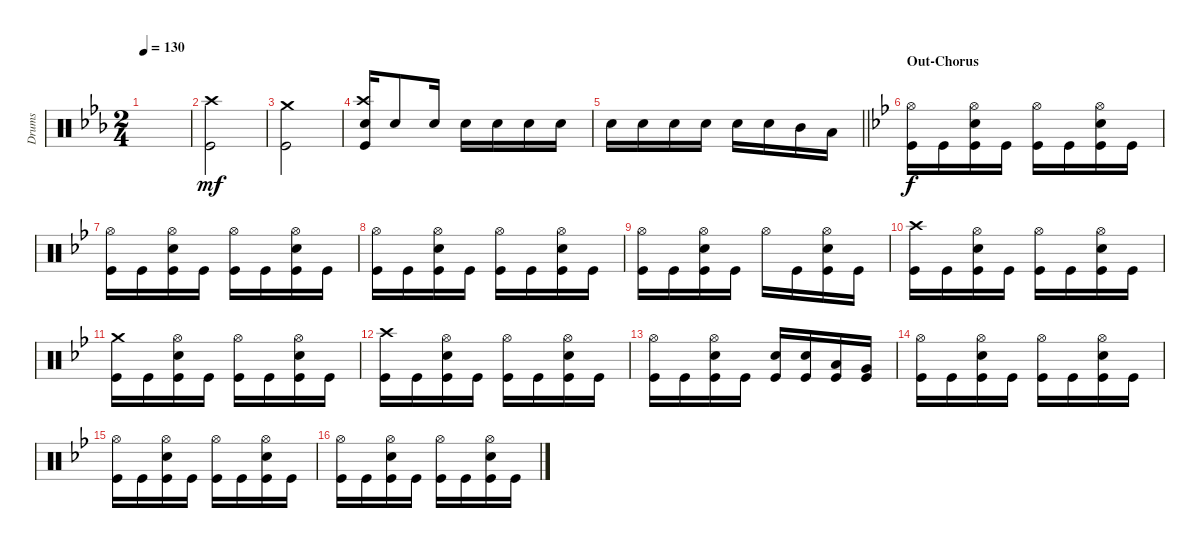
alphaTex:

\track ("Drums" "Drums") {instrument percussion}
\staff {score}
\articulation defaults
\ts (2 4)
\tempo 130
\clef neutral
\ks cminor
|
("Kick (hit)" "Crash high (hit)").2{dy mf} |
("Kick (hit)" "Crash medium (hit)").2 |
("Kick (hit)" "Crash high (hit)" "Snare (hit) 2").16 "Snare (hit) 2".8 "Snare (hit) 2".16 "Snare (hit) 2".16 "Snare (hit) 2".16 "Snare (hit) 2".16 "Snare (hit) 2".16 |
\barLineRight lightlight "Snare (hit) 2".16 "Snare (hit) 2".16 "Snare (hit) 2".16 "Snare (hit) 2".16 "Snare (hit) 2".16 "Snare (hit) 2".16 "Mid Tom (hit)".16 "Low Tom (hit)".16
|
\section ("" "Out-Chorus")
\ks gminor
("Kick (hit)" "Hi-Hat (open)").16{dy f} "Kick (hit)".16 ("Kick (hit)" "Snare (hit) 2" "Hi-Hat (open)").16 "Kick (hit)".16 ("Kick (hit)" "Hi-Hat (open)").16 "Kick (hit)".16 ("Kick (hit)" "Snare (hit) 2" "Hi-Hat (open)").16 "Kick (hit)".16 |
("Kick (hit)" "Hi-Hat (open)").16 "Kick (hit)".16 ("Kick (hit)" "Snare (hit) 2" "Hi-Hat (open)").16 "Kick (hit)".16 ("Kick (hit)" "Hi-Hat (open)").16 "Kick (hit)".16 ("Kick (hit)" "Snare (hit) 2" "Hi-Hat (open)").16 "Kick (hit)".16 |
("Kick (hit)" "Hi-Hat (open)").16 "Kick (hit)".16 ("Kick (hit)" "Snare (hit) 2" "Hi-Hat (open)").16 "Kick (hit)".16 ("Kick (hit)" "Hi-Hat (open)").16 "Kick (hit)".16 ("Kick (hit)" "Snare (hit) 2" "Hi-Hat (open)").16 "Kick (hit)".16 |
("Kick (hit)" "Hi-Hat (open)").16 "Kick (hit)".16 ("Kick (hit)" "Snare (hit) 2" "Hi-Hat (open)").16 "Kick (hit)".16 "Hi-Hat (open)".16 "Kick (hit)".16 ("Kick (hit)" "Snare (hit) 2" "Hi-Hat (open)").16 "Kick (hit)".16 |
("Kick (hit)" "Crash high (hit)").16 "Kick (hit)".16 ("Kick (hit)" "Hi-Hat (open)" "Snare (hit) 2").16 "Kick (hit)".16 ("Kick (hit)" "Hi-Hat (open)").16 "Kick (hit)".16 ("Kick (hit)" "Hi-Hat (open)" "Snare (hit) 2").16 "Kick (hit)".16 |
("Kick (hit)" "Crash medium (hit)").16 "Kick (hit)".16 ("Kick (hit)" "Hi-Hat (open)" "Snare (hit) 2").16 "Kick (hit)".16 ("Kick (hit)" "Hi-Hat (open)").16 "Kick (hit)".16 ("Kick (hit)" "Hi-Hat (open)" "Snare (hit) 2").16 "Kick (hit)".16 |
("Kick (hit)" "Crash high (hit)").16 "Kick (hit)".16 ("Kick (hit)" "Hi-Hat (open)" "Snare (hit) 2").16 "Kick (hit)".16 ("Kick (hit)" "Hi-Hat (open)").16 "Kick (hit)".16 ("Kick (hit)" "Hi-Hat (open)" "Snare (hit) 2").16 "Kick (hit)".16 |
("Kick (hit)" "Hi-Hat (open)").16 "Kick (hit)".16 ("Kick (hit)" "Hi-Hat (open)" "Snare (hit) 2").16 "Kick (hit)".16 ("Kick (hit)" "Snare (hit) 2").16 ("Kick (hit)" "Snare (hit) 2").16 ("Kick (hit)" "Low Tom (hit)").16 ("Kick (hit)" "Very Low Tom (hit)").16 |
("Kick (hit)" "Hi-Hat (open)").16 "Kick (hit)".16 ("Kick (hit)" "Snare (hit) 2" "Hi-Hat (open)").16 "Kick (hit)".16 ("Kick (hit)" "Hi-Hat (open)").16 "Kick (hit)".16 ("Kick (hit)" "Snare (hit) 2" "Hi-Hat (open)").16 "Kick (hit)".16 |
("Kick (hit)" "Hi-Hat (open)").16 "Kick (hit)".16 ("Kick (hit)" "Snare (hit) 2" "Hi-Hat (open)").16 "Kick (hit)".16 ("Kick (hit)" "Hi-Hat (open)").16 "Kick (hit)".16 ("Kick (hit)" "Snare (hit) 2" "Hi-Hat (open)").16 "Kick (hit)".16 |
("Kick (hit)" "Hi-Hat (open)").16 "Kick (hit)".16 ("Kick (hit)" "Snare (hit) 2" "Hi-Hat (open)").16 "Kick (hit)".16 ("Kick (hit)" "Hi-Hat (open)").16 "Kick (hit)".16 ("Kick (hit)" "Snare (hit) 2" "Hi-Hat (open)").16 "Kick (hit)".16
